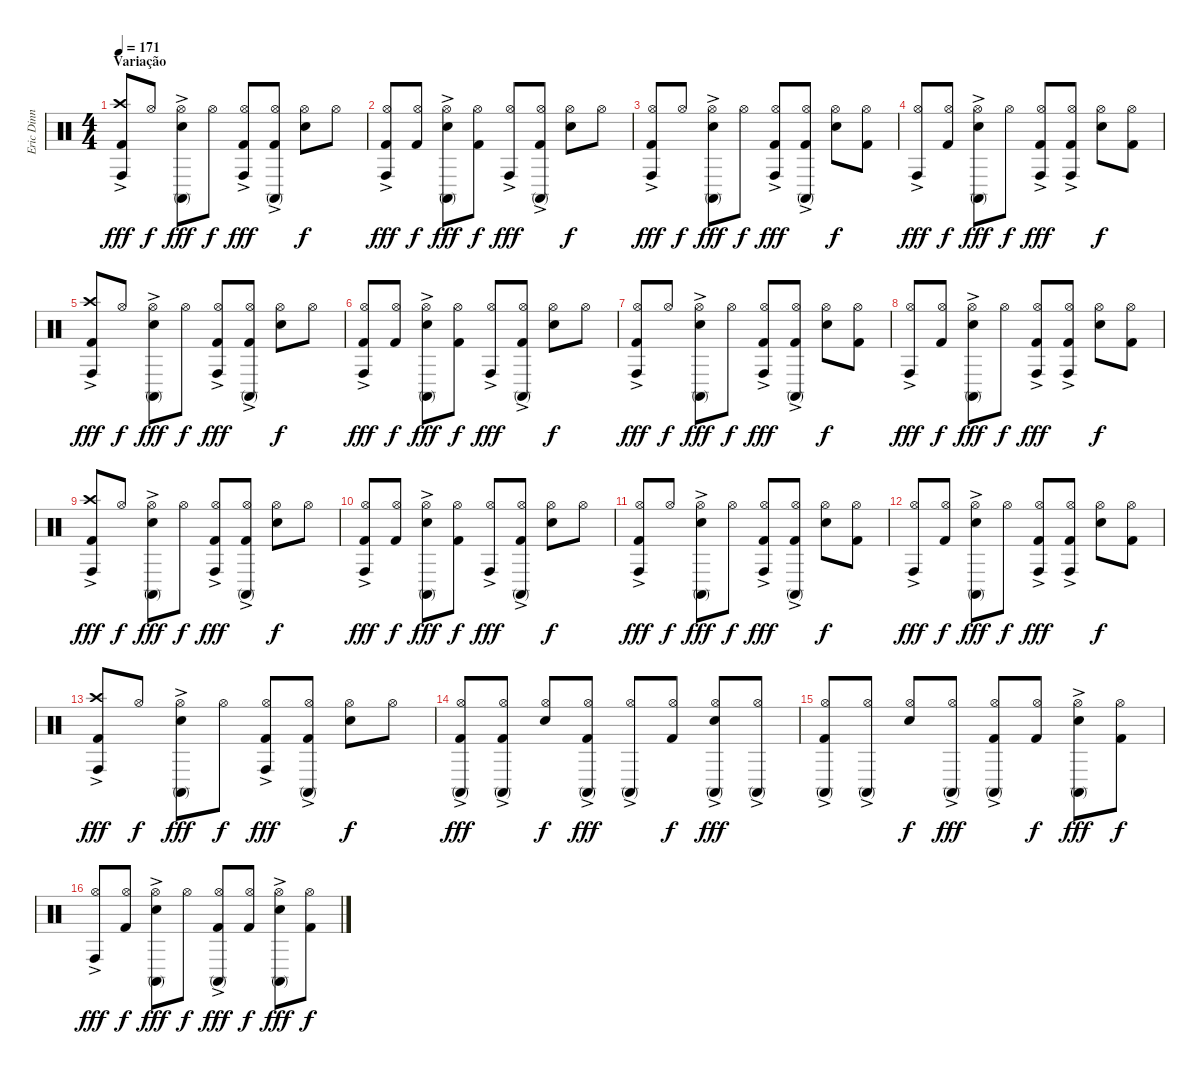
\track ("Eric Dinn" "Eric Dinn") {instrument percussion}
\staff {score}
\articulation defaults
\ts (4 4)
\section ("" "Variação")
\tempo 171
\clef neutral
\ks c
("Conga high (hit)"{ac} "Crash high (hit)" "Kick (hit) 2").8{dy fff} "Hi-Hat (open)".8{dy f} ("Conga high (mute)"{ac} "Hi-Hat (open)" "Snare (hit) 2").8{dy fff} "Hi-Hat (open)".8{dy f} ("Conga high (hit)"{ac} "Hi-Hat (open)" "Kick (hit) 2").8{dy fff} ("Conga high (mute)"{ac} "Hi-Hat (open)" "Kick (hit) 2").8 ("Hi-Hat (open)" "Snare (hit) 2").8{dy f} "Hi-Hat (open)".8 |
("Conga high (hit)"{ac} "Hi-Hat (open)" "Kick (hit) 2").8{dy fff} ("Hi-Hat (open)" "Kick (hit) 2").8{dy f} ("Conga high (mute)"{ac} "Hi-Hat (open)" "Snare (hit) 2").8{dy fff} ("Hi-Hat (open)" "Kick (hit) 2").8{dy f} ("Conga high (hit)"{ac} "Hi-Hat (open)").8{dy fff} ("Conga high (mute)"{ac} "Hi-Hat (open)" "Kick (hit) 2").8 ("Hi-Hat (open)" "Snare (hit) 2").8{dy f} "Hi-Hat (open)".8 |
("Conga high (hit)"{ac} "Hi-Hat (open)" "Kick (hit) 2").8{dy fff} "Hi-Hat (open)".8{dy f} ("Conga high (mute)"{ac} "Hi-Hat (open)" "Snare (hit) 2").8{dy fff} "Hi-Hat (open)".8{dy f} ("Conga high (hit)"{ac} "Hi-Hat (open)" "Kick (hit) 2").8{dy fff} ("Conga high (mute)"{ac} "Hi-Hat (open)" "Kick (hit) 2").8 ("Hi-Hat (open)" "Snare (hit) 2").8{dy f} ("Hi-Hat (open)" "Kick (hit) 2").8 |
("Conga high (hit)"{ac} "Hi-Hat (open)").8{dy fff} ("Hi-Hat (open)" "Kick (hit) 2").8{dy f} ("Conga high (mute)"{ac} "Hi-Hat (open)" "Snare (hit) 2").8{dy fff} "Hi-Hat (open)".8{dy f} ("Conga high (hit)"{ac} "Hi-Hat (open)" "Kick (hit) 2").8{dy fff} ("Conga high (hit)"{ac} "Hi-Hat (open)" "Kick (hit) 2").8 ("Hi-Hat (open)" "Snare (hit) 2").8{dy f} ("Hi-Hat (open)" "Kick (hit) 2").8 |
("Conga high (hit)"{ac} "Crash high (hit)" "Kick (hit) 2").8{dy fff} "Hi-Hat (open)".8{dy f} ("Conga high (mute)"{ac} "Hi-Hat (open)" "Snare (hit) 2").8{dy fff} "Hi-Hat (open)".8{dy f} ("Conga high (hit)"{ac} "Hi-Hat (open)" "Kick (hit) 2").8{dy fff} ("Conga high (mute)"{ac} "Hi-Hat (open)" "Kick (hit) 2").8 ("Hi-Hat (open)" "Snare (hit) 2").8{dy f} "Hi-Hat (open)".8 |
("Conga high (hit)"{ac} "Hi-Hat (open)" "Kick (hit) 2").8{dy fff} ("Hi-Hat (open)" "Kick (hit) 2").8{dy f} ("Conga high (mute)"{ac} "Hi-Hat (open)" "Snare (hit) 2").8{dy fff} ("Hi-Hat (open)" "Kick (hit) 2").8{dy f} ("Conga high (hit)"{ac} "Hi-Hat (open)").8{dy fff} ("Conga high (mute)"{ac} "Hi-Hat (open)" "Kick (hit) 2").8 ("Hi-Hat (open)" "Snare (hit) 2").8{dy f} "Hi-Hat (open)".8 |
("Conga high (hit)"{ac} "Hi-Hat (open)" "Kick (hit) 2").8{dy fff} "Hi-Hat (open)".8{dy f} ("Conga high (mute)"{ac} "Hi-Hat (open)" "Snare (hit) 2").8{dy fff} "Hi-Hat (open)".8{dy f} ("Conga high (hit)"{ac} "Hi-Hat (open)" "Kick (hit) 2").8{dy fff} ("Conga high (mute)"{ac} "Hi-Hat (open)" "Kick (hit) 2").8 ("Hi-Hat (open)" "Snare (hit) 2").8{dy f} ("Hi-Hat (open)" "Kick (hit) 2").8 |
("Conga high (hit)"{ac} "Hi-Hat (open)").8{dy fff} ("Hi-Hat (open)" "Kick (hit) 2").8{dy f} ("Conga high (mute)"{ac} "Hi-Hat (open)" "Snare (hit) 2").8{dy fff} "Hi-Hat (open)".8{dy f} ("Conga high (hit)"{ac} "Hi-Hat (open)" "Kick (hit) 2").8{dy fff} ("Conga high (hit)"{ac} "Hi-Hat (open)" "Kick (hit) 2").8 ("Hi-Hat (open)" "Snare (hit) 2").8{dy f} ("Hi-Hat (open)" "Kick (hit) 2").8 |
("Conga high (hit)"{ac} "Crash high (hit)" "Kick (hit) 2").8{dy fff} "Hi-Hat (open)".8{dy f} ("Conga high (mute)"{ac} "Hi-Hat (open)" "Snare (hit) 2").8{dy fff} "Hi-Hat (open)".8{dy f} ("Conga high (hit)"{ac} "Hi-Hat (open)" "Kick (hit) 2").8{dy fff} ("Conga high (mute)"{ac} "Hi-Hat (open)" "Kick (hit) 2").8 ("Hi-Hat (open)" "Snare (hit) 2").8{dy f} "Hi-Hat (open)".8 |
("Conga high (hit)"{ac} "Hi-Hat (open)" "Kick (hit) 2").8{dy fff} ("Hi-Hat (open)" "Kick (hit) 2").8{dy f} ("Conga high (mute)"{ac} "Hi-Hat (open)" "Snare (hit) 2").8{dy fff} ("Hi-Hat (open)" "Kick (hit) 2").8{dy f} ("Conga high (hit)"{ac} "Hi-Hat (open)").8{dy fff} ("Conga high (mute)"{ac} "Hi-Hat (open)" "Kick (hit) 2").8 ("Hi-Hat (open)" "Snare (hit) 2").8{dy f} "Hi-Hat (open)".8 |
("Conga high (hit)"{ac} "Hi-Hat (open)" "Kick (hit) 2").8{dy fff} "Hi-Hat (open)".8{dy f} ("Conga high (mute)"{ac} "Hi-Hat (open)" "Snare (hit) 2").8{dy fff} "Hi-Hat (open)".8{dy f} ("Conga high (hit)"{ac} "Hi-Hat (open)" "Kick (hit) 2").8{dy fff} ("Conga high (mute)"{ac} "Hi-Hat (open)" "Kick (hit) 2").8 ("Hi-Hat (open)" "Snare (hit) 2").8{dy f} ("Hi-Hat (open)" "Kick (hit) 2").8 |
("Conga high (hit)"{ac} "Hi-Hat (open)").8{dy fff} ("Hi-Hat (open)" "Kick (hit) 2").8{dy f} ("Conga high (mute)"{ac} "Hi-Hat (open)" "Snare (hit) 2").8{dy fff} "Hi-Hat (open)".8{dy f} ("Conga high (hit)"{ac} "Hi-Hat (open)" "Kick (hit) 2").8{dy fff} ("Conga high (hit)"{ac} "Hi-Hat (open)" "Kick (hit) 2").8 ("Hi-Hat (open)" "Snare (hit) 2").8{dy f} ("Hi-Hat (open)" "Kick (hit) 2").8 |
("Conga high (hit)"{ac} "Crash high (hit)" "Kick (hit) 2").8{dy fff} "Hi-Hat (open)".8{dy f} ("Conga high (mute)"{ac} "Hi-Hat (open)" "Snare (hit) 2").8{dy fff} "Hi-Hat (open)".8{dy f} ("Conga high (hit)"{ac} "Hi-Hat (open)" "Kick (hit) 2").8{dy fff} ("Conga high (mute)"{ac} "Hi-Hat (open)" "Kick (hit) 2").8 ("Hi-Hat (open)" "Snare (hit) 2").8{dy f} "Hi-Hat (open)".8 |
("Conga high (mute)"{ac} "Hi-Hat (open)" "Kick (hit) 2").8{dy fff} ("Conga high (mute)"{ac} "Hi-Hat (open)" "Kick (hit) 2").8 ("Hi-Hat (open)" "Snare (hit) 2").8{dy f} ("Conga high (mute)"{ac} "Hi-Hat (open)" "Kick (hit) 2").8{dy fff} ("Conga high (mute)"{ac} "Hi-Hat (open)").8 ("Hi-Hat (open)" "Kick (hit) 2").8{dy f} ("Conga high (mute)"{ac} "Hi-Hat (open)" "Snare (hit) 2").8{dy fff} ("Conga high (mute)"{ac} "Hi-Hat (open)").8 |
("Conga high (mute)"{ac} "Hi-Hat (open)" "Kick (hit) 2").8 ("Conga high (mute)"{ac} "Hi-Hat (open)").8 ("Hi-Hat (open)" "Snare (hit) 2").8{dy f} ("Conga high (mute)"{ac} "Hi-Hat (open)").8{dy fff} ("Conga high (mute)"{ac} "Hi-Hat (open)" "Kick (hit) 2").8 ("Hi-Hat (open)" "Kick (hit) 2").8{dy f} ("Conga high (mute)"{ac} "Hi-Hat (open)" "Snare (hit) 2").8{dy fff} ("Hi-Hat (open)" "Kick (hit) 2").8{dy f} |
("Conga high (hit)"{ac} "Hi-Hat (open)").8{dy fff} ("Hi-Hat (open)" "Kick (hit) 2").8{dy f} ("Conga high (mute)"{ac} "Hi-Hat (open)" "Snare (hit) 2").8{dy fff} "Hi-Hat (open)".8{dy f} ("Conga high (mute)"{ac} "Hi-Hat (open)" "Kick (hit) 2").8{dy fff} ("Hi-Hat (open)" "Kick (hit) 2").8{dy f} ("Conga high (mute)"{ac} "Hi-Hat (open)" "Snare (hit) 2").8{dy fff} ("Hi-Hat (open)" "Kick (hit) 2").8{dy f}
